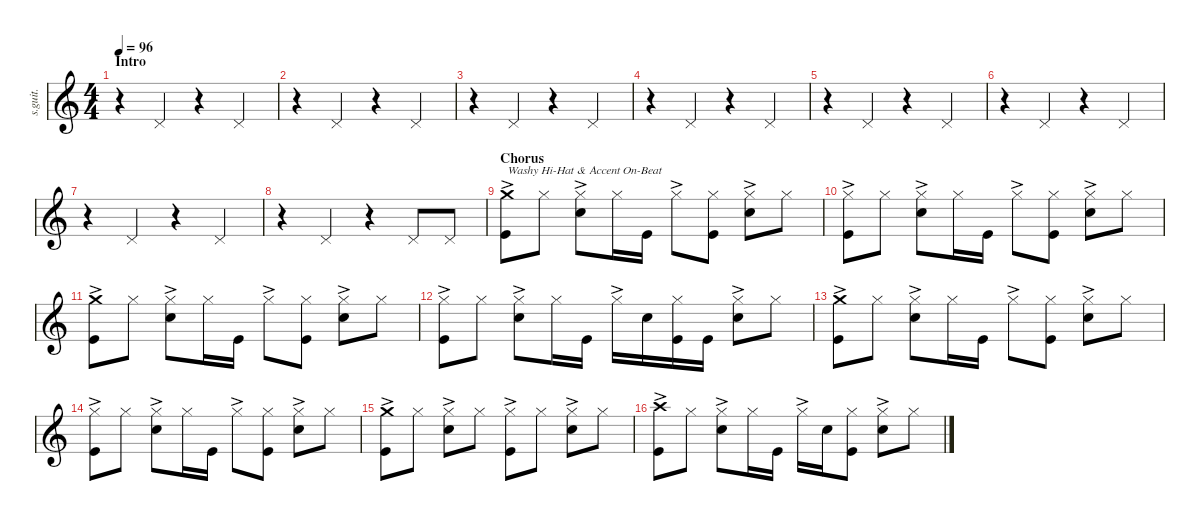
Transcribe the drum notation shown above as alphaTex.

\defaultSystemsLayout 4
\hideDynamics
\bracketExtendMode nobrackets
\track ("Chad Smith" "s.guit.") {instrument percussion}
\staff {score}
\articulation defaults
\ts (4 4)
\beaming (8 2 2 2 2)
\section ("" "Intro")
\tempo 96
\clef g2
\ks c
r.4{dy f} "Pedal Hi-Hat (hit)".4 r.4 "Pedal Hi-Hat (hit)".4 |
r.4 "Pedal Hi-Hat (hit)".4 r.4 "Pedal Hi-Hat (hit)".4 |
r.4 "Pedal Hi-Hat (hit)".4 r.4 "Pedal Hi-Hat (hit)".4 |
r.4 "Pedal Hi-Hat (hit)".4 r.4 "Pedal Hi-Hat (hit)".4 |
r.4 "Pedal Hi-Hat (hit)".4 r.4 "Pedal Hi-Hat (hit)".4 |
r.4 "Pedal Hi-Hat (hit)".4 r.4 "Pedal Hi-Hat (hit)".4 |
r.4 "Pedal Hi-Hat (hit)".4 r.4 "Pedal Hi-Hat (hit)".4 |
r.4 "Pedal Hi-Hat (hit)".4 r.4 "Pedal Hi-Hat (hit)".8 "Pedal Hi-Hat (hit)".8 |
\section ("" "Chorus")
("Crash medium (hit)"{ac} "Kick (hit)").8{txt "Washy Hi-Hat & Accent On-Beat"} "Hi-Hat (closed)".8 ("Hi-Hat (closed)"{ac} "Snare (hit) 2").8 "Hi-Hat (closed)".16 "Kick (hit)".16 "Hi-Hat (closed)"{ac}.8 ("Hi-Hat (closed)" "Kick (hit)").8 ("Hi-Hat (closed)"{ac} "Snare (hit) 2").8 "Hi-Hat (closed)".8 |
("Hi-Hat (closed)"{ac} "Kick (hit)").8 "Hi-Hat (closed)".8 ("Hi-Hat (closed)"{ac} "Snare (hit) 2").8 "Hi-Hat (closed)".16 "Kick (hit)".16 "Hi-Hat (closed)"{ac}.8 ("Hi-Hat (closed)" "Kick (hit)").8 ("Hi-Hat (closed)"{ac} "Snare (hit) 2").8 "Hi-Hat (closed)".8 |
("Crash medium (hit)"{ac} "Kick (hit)").8 "Hi-Hat (closed)".8 ("Hi-Hat (closed)"{ac} "Snare (hit) 2").8 "Hi-Hat (closed)".16 "Kick (hit)".16 "Hi-Hat (closed)"{ac}.8 ("Hi-Hat (closed)" "Kick (hit)").8 ("Hi-Hat (closed)"{ac} "Snare (hit) 2").8 "Hi-Hat (closed)".8 |
("Hi-Hat (closed)"{ac} "Kick (hit)").8 "Hi-Hat (closed)".8 ("Hi-Hat (closed)"{ac} "Snare (hit) 2").8 "Hi-Hat (closed)".16 "Kick (hit)".16 "Hi-Hat (closed)"{ac}.16 "Snare (hit) 2".16 ("Hi-Hat (closed)" "Kick (hit)").16 "Kick (hit)".16 ("Hi-Hat (closed)"{ac} "Snare (hit) 2").8 "Hi-Hat (closed)".8 |
("Crash medium (hit)"{ac} "Kick (hit)").8 "Hi-Hat (closed)".8 ("Hi-Hat (closed)"{ac} "Snare (hit) 2").8 "Hi-Hat (closed)".16 "Kick (hit)".16 "Hi-Hat (closed)"{ac}.8 ("Hi-Hat (closed)" "Kick (hit)").8 ("Hi-Hat (closed)"{ac} "Snare (hit) 2").8 "Hi-Hat (closed)".8 |
("Hi-Hat (closed)"{ac} "Kick (hit)").8 "Hi-Hat (closed)".8 ("Hi-Hat (closed)"{ac} "Snare (hit) 2").8 "Hi-Hat (closed)".16 "Kick (hit)".16 "Hi-Hat (closed)"{ac}.8 ("Hi-Hat (closed)" "Kick (hit)").8 ("Hi-Hat (closed)"{ac} "Snare (hit) 2").8 "Hi-Hat (closed)".8 |
("Crash medium (hit)"{ac} "Kick (hit)").8 "Hi-Hat (closed)".8 ("Hi-Hat (closed)"{ac} "Snare (hit) 2").8 "Hi-Hat (closed)".8 ("Hi-Hat (closed)"{ac} "Kick (hit)").8 "Hi-Hat (closed)".8 ("Hi-Hat (closed)"{ac} "Snare (hit) 2").8 "Hi-Hat (closed)".8 |
("Crash high (hit)"{ac} "Kick (hit)").8 "Hi-Hat (closed)".8 ("Hi-Hat (closed)"{ac} "Snare (hit) 2").8 "Hi-Hat (closed)".16 "Kick (hit)".16 "Hi-Hat (closed)"{ac}.16 "Snare (hit) 2".16 ("Hi-Hat (closed)" "Kick (hit)").8 ("Hi-Hat (closed)"{ac} "Snare (hit) 2").8 "Hi-Hat (closed)".8
